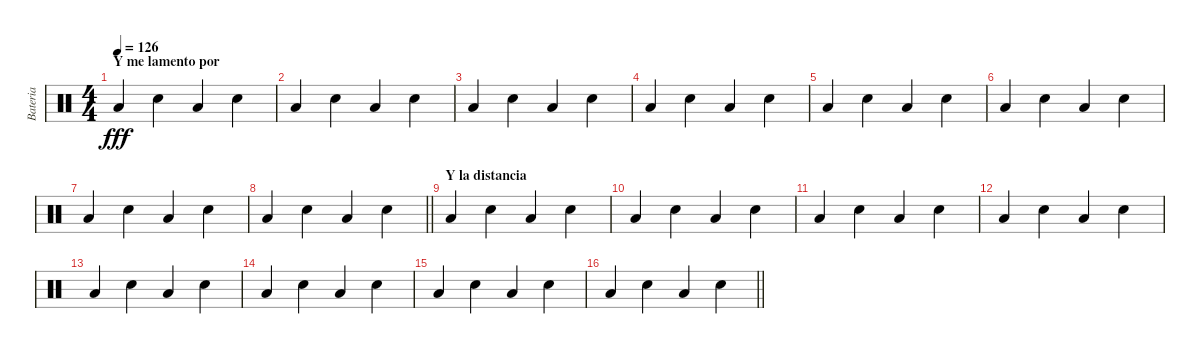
\track ("Bateria" "Bateria") {instrument percussion}
\staff {score}
\articulation defaults
\ts (4 4)
\section ("" "Y me lamento por")
\tempo 126
\clef neutral
\ks c "Low Floor Tom (hit)".4{dy fff} "Snare (hit) 2".4 "Low Floor Tom (hit)".4 "Snare (hit) 2".4
|
"Low Floor Tom (hit)".4 "Snare (hit) 2".4 "Low Floor Tom (hit)".4 "Snare (hit) 2".4 |
"Low Floor Tom (hit)".4 "Snare (hit) 2".4 "Low Floor Tom (hit)".4 "Snare (hit) 2".4 |
"Low Floor Tom (hit)".4 "Snare (hit) 2".4 "Low Floor Tom (hit)".4 "Snare (hit) 2".4 |
"Low Floor Tom (hit)".4 "Snare (hit) 2".4 "Low Floor Tom (hit)".4 "Snare (hit) 2".4 |
"Low Floor Tom (hit)".4 "Snare (hit) 2".4 "Low Floor Tom (hit)".4 "Snare (hit) 2".4 |
"Low Floor Tom (hit)".4 "Snare (hit) 2".4 "Low Floor Tom (hit)".4 "Snare (hit) 2".4 |
\barLineRight lightlight "Low Floor Tom (hit)".4 "Snare (hit) 2".4 "Low Floor Tom (hit)".4 "Snare (hit) 2".4
|
\section ("" "Y la distancia")
"Low Floor Tom (hit)".4 "Snare (hit) 2".4 "Low Floor Tom (hit)".4 "Snare (hit) 2".4 |
"Low Floor Tom (hit)".4 "Snare (hit) 2".4 "Low Floor Tom (hit)".4 "Snare (hit) 2".4 |
"Low Floor Tom (hit)".4 "Snare (hit) 2".4 "Low Floor Tom (hit)".4 "Snare (hit) 2".4 |
"Low Floor Tom (hit)".4 "Snare (hit) 2".4 "Low Floor Tom (hit)".4 "Snare (hit) 2".4 |
"Low Floor Tom (hit)".4 "Snare (hit) 2".4 "Low Floor Tom (hit)".4 "Snare (hit) 2".4 |
"Low Floor Tom (hit)".4 "Snare (hit) 2".4 "Low Floor Tom (hit)".4 "Snare (hit) 2".4 |
"Low Floor Tom (hit)".4 "Snare (hit) 2".4 "Low Floor Tom (hit)".4 "Snare (hit) 2".4 |
\barLineRight lightlight "Low Floor Tom (hit)".4 "Snare (hit) 2".4 "Low Floor Tom (hit)".4 "Snare (hit) 2".4
